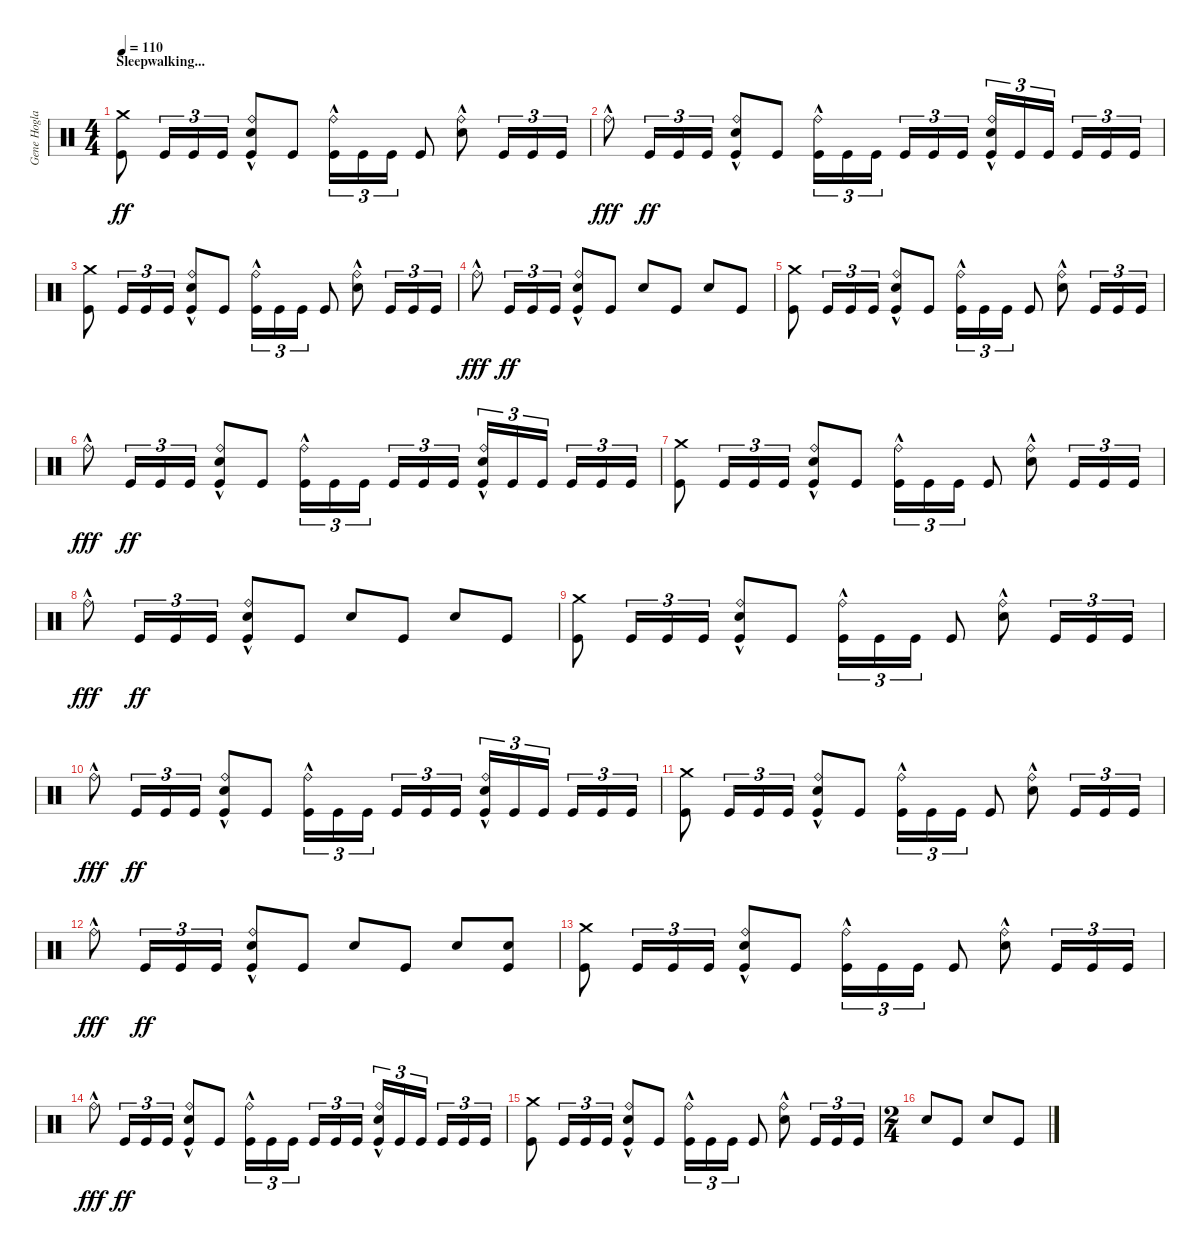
\track ("Gene Hoglan" "Gene Hogla") {instrument percussion}
\staff {score}
\articulation defaults
\ts (4 4)
\section ("" "Sleepwalking...")
\tempo 110
\clef neutral
\ks c
("Crash medium (hit)" "Kick (hit)").8{dy ff} "Kick (hit)".16{tu (3 2)} "Kick (hit)".16{tu (3 2)} "Kick (hit)".16{tu (3 2)} ("Ride (bell)"{hac} "Electric Snare (hit)" "Kick (hit)").8 "Kick (hit)".8 ("Ride (bell)"{hac} "Kick (hit)").16{tu (3 2)} "Kick (hit)".16{tu (3 2)} "Kick (hit)".16{tu (3 2)} "Kick (hit)".8 ("Ride (bell)"{hac} "Electric Snare (hit)").8 "Kick (hit)".16{tu (3 2)} "Kick (hit)".16{tu (3 2)} "Kick (hit)".16{tu (3 2)} |
"Ride (bell)"{hac}.8{dy fff} "Kick (hit)".16{tu (3 2) dy ff} "Kick (hit)".16{tu (3 2)} "Kick (hit)".16{tu (3 2)} ("Ride (bell)"{hac} "Electric Snare (hit)" "Kick (hit)").8 "Kick (hit)".8 ("Ride (bell)"{hac} "Kick (hit)").16{tu (3 2)} "Kick (hit)".16{tu (3 2)} "Kick (hit)".16{tu (3 2) beam splitsecondary} "Kick (hit)".16{tu (3 2)} "Kick (hit)".16{tu (3 2)} "Kick (hit)".16{tu (3 2)} ("Ride (bell)"{hac} "Electric Snare (hit)" "Kick (hit)").16{tu (3 2)} "Kick (hit)".16{tu (3 2)} "Kick (hit)".16{tu (3 2) beam splitsecondary} "Kick (hit)".16{tu (3 2)} "Kick (hit)".16{tu (3 2)} "Kick (hit)".16{tu (3 2)} |
("Crash medium (hit)" "Kick (hit)").8 "Kick (hit)".16{tu (3 2)} "Kick (hit)".16{tu (3 2)} "Kick (hit)".16{tu (3 2)} ("Ride (bell)"{hac} "Electric Snare (hit)" "Kick (hit)").8 "Kick (hit)".8 ("Ride (bell)"{hac} "Kick (hit)").16{tu (3 2)} "Kick (hit)".16{tu (3 2)} "Kick (hit)".16{tu (3 2)} "Kick (hit)".8 ("Ride (bell)"{hac} "Electric Snare (hit)").8 "Kick (hit)".16{tu (3 2)} "Kick (hit)".16{tu (3 2)} "Kick (hit)".16{tu (3 2)} |
"Ride (bell)"{hac}.8{dy fff} "Kick (hit)".16{tu (3 2) dy ff} "Kick (hit)".16{tu (3 2)} "Kick (hit)".16{tu (3 2)} ("Ride (bell)"{hac} "Electric Snare (hit)" "Kick (hit)").8 "Kick (hit)".8 "Electric Snare (hit)".8 "Kick (hit)".8 "Electric Snare (hit)".8 "Kick (hit)".8 |
("Crash medium (hit)" "Kick (hit)").8 "Kick (hit)".16{tu (3 2)} "Kick (hit)".16{tu (3 2)} "Kick (hit)".16{tu (3 2)} ("Ride (bell)"{hac} "Electric Snare (hit)" "Kick (hit)").8 "Kick (hit)".8 ("Ride (bell)"{hac} "Kick (hit)").16{tu (3 2)} "Kick (hit)".16{tu (3 2)} "Kick (hit)".16{tu (3 2)} "Kick (hit)".8 ("Ride (bell)"{hac} "Electric Snare (hit)").8 "Kick (hit)".16{tu (3 2)} "Kick (hit)".16{tu (3 2)} "Kick (hit)".16{tu (3 2)} |
"Ride (bell)"{hac}.8{dy fff} "Kick (hit)".16{tu (3 2) dy ff} "Kick (hit)".16{tu (3 2)} "Kick (hit)".16{tu (3 2)} ("Ride (bell)"{hac} "Electric Snare (hit)" "Kick (hit)").8 "Kick (hit)".8 ("Ride (bell)"{hac} "Kick (hit)").16{tu (3 2)} "Kick (hit)".16{tu (3 2)} "Kick (hit)".16{tu (3 2) beam splitsecondary} "Kick (hit)".16{tu (3 2)} "Kick (hit)".16{tu (3 2)} "Kick (hit)".16{tu (3 2)} ("Ride (bell)"{hac} "Electric Snare (hit)" "Kick (hit)").16{tu (3 2)} "Kick (hit)".16{tu (3 2)} "Kick (hit)".16{tu (3 2) beam splitsecondary} "Kick (hit)".16{tu (3 2)} "Kick (hit)".16{tu (3 2)} "Kick (hit)".16{tu (3 2)} |
("Crash medium (hit)" "Kick (hit)").8 "Kick (hit)".16{tu (3 2)} "Kick (hit)".16{tu (3 2)} "Kick (hit)".16{tu (3 2)} ("Ride (bell)"{hac} "Electric Snare (hit)" "Kick (hit)").8 "Kick (hit)".8 ("Ride (bell)"{hac} "Kick (hit)").16{tu (3 2)} "Kick (hit)".16{tu (3 2)} "Kick (hit)".16{tu (3 2)} "Kick (hit)".8 ("Ride (bell)"{hac} "Electric Snare (hit)").8 "Kick (hit)".16{tu (3 2)} "Kick (hit)".16{tu (3 2)} "Kick (hit)".16{tu (3 2)} |
"Ride (bell)"{hac}.8{dy fff} "Kick (hit)".16{tu (3 2) dy ff} "Kick (hit)".16{tu (3 2)} "Kick (hit)".16{tu (3 2)} ("Ride (bell)"{hac} "Electric Snare (hit)" "Kick (hit)").8 "Kick (hit)".8 "Electric Snare (hit)".8 "Kick (hit)".8 "Electric Snare (hit)".8 "Kick (hit)".8 |
("Crash medium (hit)" "Kick (hit)").8 "Kick (hit)".16{tu (3 2)} "Kick (hit)".16{tu (3 2)} "Kick (hit)".16{tu (3 2)} ("Ride (bell)"{hac} "Electric Snare (hit)" "Kick (hit)").8 "Kick (hit)".8 ("Ride (bell)"{hac} "Kick (hit)").16{tu (3 2)} "Kick (hit)".16{tu (3 2)} "Kick (hit)".16{tu (3 2)} "Kick (hit)".8 ("Ride (bell)"{hac} "Electric Snare (hit)").8 "Kick (hit)".16{tu (3 2)} "Kick (hit)".16{tu (3 2)} "Kick (hit)".16{tu (3 2)} |
"Ride (bell)"{hac}.8{dy fff} "Kick (hit)".16{tu (3 2) dy ff} "Kick (hit)".16{tu (3 2)} "Kick (hit)".16{tu (3 2)} ("Ride (bell)"{hac} "Electric Snare (hit)" "Kick (hit)").8 "Kick (hit)".8 ("Ride (bell)"{hac} "Kick (hit)").16{tu (3 2)} "Kick (hit)".16{tu (3 2)} "Kick (hit)".16{tu (3 2) beam splitsecondary} "Kick (hit)".16{tu (3 2)} "Kick (hit)".16{tu (3 2)} "Kick (hit)".16{tu (3 2)} ("Ride (bell)"{hac} "Electric Snare (hit)" "Kick (hit)").16{tu (3 2)} "Kick (hit)".16{tu (3 2)} "Kick (hit)".16{tu (3 2) beam splitsecondary} "Kick (hit)".16{tu (3 2)} "Kick (hit)".16{tu (3 2)} "Kick (hit)".16{tu (3 2)} |
("Crash medium (hit)" "Kick (hit)").8 "Kick (hit)".16{tu (3 2)} "Kick (hit)".16{tu (3 2)} "Kick (hit)".16{tu (3 2)} ("Ride (bell)"{hac} "Electric Snare (hit)" "Kick (hit)").8 "Kick (hit)".8 ("Ride (bell)"{hac} "Kick (hit)").16{tu (3 2)} "Kick (hit)".16{tu (3 2)} "Kick (hit)".16{tu (3 2)} "Kick (hit)".8 ("Ride (bell)"{hac} "Electric Snare (hit)").8 "Kick (hit)".16{tu (3 2)} "Kick (hit)".16{tu (3 2)} "Kick (hit)".16{tu (3 2)} |
"Ride (bell)"{hac}.8{dy fff} "Kick (hit)".16{tu (3 2) dy ff} "Kick (hit)".16{tu (3 2)} "Kick (hit)".16{tu (3 2)} ("Ride (bell)"{hac} "Electric Snare (hit)" "Kick (hit)").8 "Kick (hit)".8 "Electric Snare (hit)".8 "Kick (hit)".8 "Electric Snare (hit)".8 ("Electric Snare (hit)" "Kick (hit)").8 |
("Crash medium (hit)" "Kick (hit)").8 "Kick (hit)".16{tu (3 2)} "Kick (hit)".16{tu (3 2)} "Kick (hit)".16{tu (3 2)} ("Ride (bell)"{hac} "Electric Snare (hit)" "Kick (hit)").8 "Kick (hit)".8 ("Ride (bell)"{hac} "Kick (hit)").16{tu (3 2)} "Kick (hit)".16{tu (3 2)} "Kick (hit)".16{tu (3 2)} "Kick (hit)".8 ("Ride (bell)"{hac} "Electric Snare (hit)").8 "Kick (hit)".16{tu (3 2)} "Kick (hit)".16{tu (3 2)} "Kick (hit)".16{tu (3 2)} |
"Ride (bell)"{hac}.8{dy fff} "Kick (hit)".16{tu (3 2) dy ff} "Kick (hit)".16{tu (3 2)} "Kick (hit)".16{tu (3 2)} ("Ride (bell)"{hac} "Electric Snare (hit)" "Kick (hit)").8 "Kick (hit)".8 ("Ride (bell)"{hac} "Kick (hit)").16{tu (3 2)} "Kick (hit)".16{tu (3 2)} "Kick (hit)".16{tu (3 2) beam splitsecondary} "Kick (hit)".16{tu (3 2)} "Kick (hit)".16{tu (3 2)} "Kick (hit)".16{tu (3 2)} ("Ride (bell)"{hac} "Electric Snare (hit)" "Kick (hit)").16{tu (3 2)} "Kick (hit)".16{tu (3 2)} "Kick (hit)".16{tu (3 2) beam splitsecondary} "Kick (hit)".16{tu (3 2)} "Kick (hit)".16{tu (3 2)} "Kick (hit)".16{tu (3 2)} |
("Crash medium (hit)" "Kick (hit)").8 "Kick (hit)".16{tu (3 2)} "Kick (hit)".16{tu (3 2)} "Kick (hit)".16{tu (3 2)} ("Ride (bell)"{hac} "Electric Snare (hit)" "Kick (hit)").8 "Kick (hit)".8 ("Ride (bell)"{hac} "Kick (hit)").16{tu (3 2)} "Kick (hit)".16{tu (3 2)} "Kick (hit)".16{tu (3 2)} "Kick (hit)".8 ("Ride (bell)"{hac} "Electric Snare (hit)").8 "Kick (hit)".16{tu (3 2)} "Kick (hit)".16{tu (3 2)} "Kick (hit)".16{tu (3 2)} |
\ts (2 4)
"Electric Snare (hit)".8 "Kick (hit)".8 "Electric Snare (hit)".8 "Kick (hit)".8
